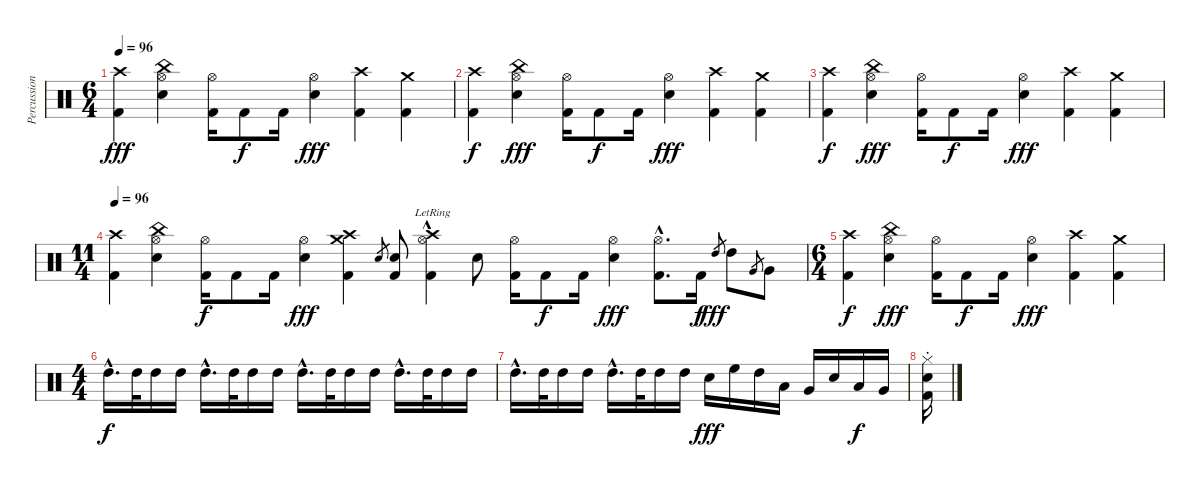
\track ("Percussion" "Percussion") {instrument percussion}
\staff {score}
\articulation defaults
\ts (6 4)
\tempo 96
\clef neutral
\ks c
("Crash high (hit)" "Kick (hit) 2").4{dy fff volume 16} ("China (hit)" "Hi-Hat (open)" "Electric Snare (hit)").4 ("Hi-Hat (open)" "Kick (hit) 2").16 "Kick (hit) 2".8{dy f} "Kick (hit) 2".16 ("Hi-Hat (open)" "Electric Snare (hit)").4{dy fff} ("Crash high (hit)" "Kick (hit) 2").4 ("Crash medium (hit)" "Kick (hit) 2").4 |
("Crash high (hit)" "Kick (hit) 2").4{dy f volume 16} ("China (hit)" "Hi-Hat (open)" "Electric Snare (hit)").4{dy fff} ("Hi-Hat (open)" "Kick (hit) 2").16 "Kick (hit) 2".8{dy f} "Kick (hit) 2".16 ("Hi-Hat (open)" "Electric Snare (hit)").4{dy fff} ("Crash high (hit)" "Kick (hit) 2").4 ("Crash medium (hit)" "Kick (hit) 2").4 |
("Crash high (hit)" "Kick (hit) 2").4{dy f volume 16} ("China (hit)" "Hi-Hat (open)" "Electric Snare (hit)").4{dy fff} ("Hi-Hat (open)" "Kick (hit) 2").16 "Kick (hit) 2".8{dy f} "Kick (hit) 2".16 ("Hi-Hat (open)" "Electric Snare (hit)").4{dy fff} ("Crash high (hit)" "Kick (hit) 2").4 ("Crash medium (hit)" "Kick (hit) 2").4 |
\ts (11 4)
\tempo 96
("Crash high (hit)" "Kick (hit) 2").4{volume 16} ("China (hit)" "Hi-Hat (open)" "Electric Snare (hit)").4 ("Hi-Hat (open)" "Kick (hit) 2").16{dy f} "Kick (hit) 2".8 "Kick (hit) 2".16 ("Hi-Hat (open)" "Electric Snare (hit)").4{dy fff} ("Crash medium (hit)" "Crash high (hit)" "Kick (hit) 2").4 "Electric Snare (hit)".8{gr} ("Electric Snare (hit)" "Kick (hit) 2").8 ("Crash high (hit)"{hac} "Hi-Hat (open)"{lr} "Kick (hit) 2").4{volume 16} "Electric Snare (hit)".8 ("Hi-Hat (open)" "Kick (hit) 2").16 "Kick (hit) 2".8{dy f} "Kick (hit) 2".16 ("Hi-Hat (open)" "Electric Snare (hit)").4{dy fff} ("Hi-Hat (open)"{hac} "Kick (hit) 2"{hac}).8{d} "Kick (hit) 2".16{dy f} "High Tom (hit)".8{gr dy fff} "High Tom (hit)".8 "Very Low Tom (hit)".8{gr} "Very Low Tom (hit)".8 |
\ts (6 4)
("Crash high (hit)" "Kick (hit) 2").4{dy f volume 16} ("China (hit)" "Hi-Hat (open)" "Electric Snare (hit)").4{dy fff} ("Hi-Hat (open)" "Kick (hit) 2").16 "Kick (hit) 2".8{dy f} "Kick (hit) 2".16 ("Hi-Hat (open)" "Electric Snare (hit)").4{dy fff} ("Crash high (hit)" "Kick (hit) 2").4 ("Crash medium (hit)" "Kick (hit) 2").4 |
\ts (4 4)
"High Tom (hit)"{hac}.16{d dy f} "High Tom (hit)".32 "High Tom (hit)".16 "High Tom (hit)".16 "High Tom (hit)"{hac}.16{d} "High Tom (hit)".32 "High Tom (hit)".16 "High Tom (hit)".16 "High Tom (hit)"{hac}.16{d} "High Tom (hit)".32 "High Tom (hit)".16 "High Tom (hit)".16 "High Tom (hit)"{hac}.16{d} "High Tom (hit)".32 "High Tom (hit)".16 "High Tom (hit)".16 |
"High Tom (hit)"{hac}.16{d} "High Tom (hit)".32 "High Tom (hit)".16 "High Tom (hit)".16 "High Tom (hit)"{hac}.16{d} "High Tom (hit)".32 "High Tom (hit)".16 "High Tom (hit)".16 "Electric Snare (hit)".16{dy fff} "High Floor Tom (hit)".16 "High Tom (hit)".16 "Low Tom (hit)".16 "Very Low Tom (hit)".16 "Electric Snare (hit)".16 "Low Tom (hit)".16{dy f} "Very Low Tom (hit)".16 |
("Hi-Hat (closed)"{st} "Kick (hit) 2" "Electric Snare (hit)").16
